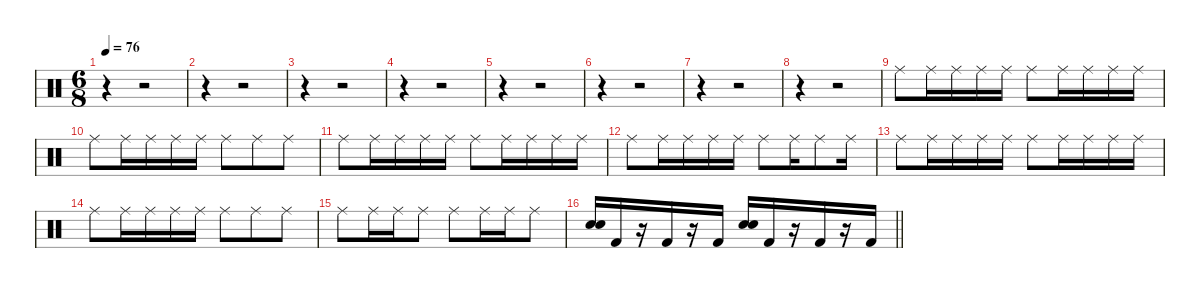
\defaultSystemsLayout 4
\hideDynamics
\bracketExtendMode nobrackets
\singleTrackTrackNamePolicy hidden
\multiTrackTrackNamePolicy hidden
\firstSystemTrackNameMode fullname
\firstSystemTrackNameOrientation horizontal
\otherSystemsTrackNameOrientation horizontal
\track ("Drums" "drm.") {instrument percussion}
\staff {score}
\articulation defaults
\ts (6 8)
\beaming (8 3 3)
\tempo 76
\clef neutral
\ks c
r.4{dy fff beam Down} r.2{beam Down} |
r.4{beam Down} r.2{beam Down} |
r.4{beam Down} r.2{beam Down} |
r.4{beam Down} r.2{beam Down} |
r.4{beam Down} r.2{beam Down} |
r.4{beam Down} r.2{beam Down} |
r.4{beam Down} r.2{beam Down} |
r.4{beam Down} r.2{beam Down} |
"Ride (middle)".8{beam Down} "Ride (middle)".16{dy f beam Down} "Ride (middle)".16{beam Down} "Ride (middle)".16{beam Down} "Ride (middle)".16{beam Down} "Ride (middle)".8{dy fff beam Down} "Ride (middle)".16{dy f beam Down} "Ride (middle)".16{beam Down} "Ride (middle)".16{beam Down} "Ride (middle)".16{beam Down} |
"Ride (middle)".8{dy fff beam Down} "Ride (middle)".16{dy f beam Down} "Ride (middle)".16{beam Down} "Ride (middle)".16{beam Down} "Ride (middle)".16{beam Down} "Ride (middle)".8{dy fff beam Down} "Ride (middle)".8{beam Down} "Ride (middle)".8{beam Down} |
"Ride (middle)".8{beam Down} "Ride (middle)".16{dy f beam Down} "Ride (middle)".16{beam Down} "Ride (middle)".16{beam Down} "Ride (middle)".16{beam Down} "Ride (middle)".8{dy fff beam Down} "Ride (middle)".16{dy f beam Down} "Ride (middle)".16{beam Down} "Ride (middle)".16{beam Down} "Ride (middle)".16{beam Down} |
"Ride (middle)".8{dy fff beam Down} "Ride (middle)".16{dy f beam Down} "Ride (middle)".16{beam Down} "Ride (middle)".16{beam Down} "Ride (middle)".16{beam Down} "Ride (middle)".8{dy fff beam Down} "Ride (middle)".16{dy f beam Down} "Ride (middle)".8{dy fff beam Down} "Ride (middle)".16{dy f beam Down} |
"Ride (middle)".8{dy fff beam Down} "Ride (middle)".16{dy f beam Down} "Ride (middle)".16{beam Down} "Ride (middle)".16{beam Down} "Ride (middle)".16{beam Down} "Ride (middle)".8{dy fff beam Down} "Ride (middle)".16{dy f beam Down} "Ride (middle)".16{beam Down} "Ride (middle)".16{beam Down} "Ride (middle)".16{beam Down} |
"Ride (middle)".8{dy fff beam Down} "Ride (middle)".16{dy f beam Down} "Ride (middle)".16{beam Down} "Ride (middle)".16{beam Down} "Ride (middle)".16{beam Down} "Ride (middle)".8{dy fff beam Down} "Ride (middle)".8{beam Down} "Ride (middle)".8{beam Down} |
"Ride (middle)".8{beam Down} "Ride (middle)".16{dy f beam Down} "Ride (middle)".16{beam Down} "Ride (middle)".8{beam Down} "Ride (middle)".8{dy fff beam Down} "Ride (middle)".16{dy f beam Down} "Ride (middle)".16{beam Down} "Ride (middle)".8{beam Down} |
\barLineRight lightlight
("Snare (hit) 2" "Snare (hit) 2").16{dy fff beam Up} "Kick (hit) 2".16{dy f beam Up} r.16{beam Up} "Kick (hit) 2".16{beam Up} r.16{beam Up} "Kick (hit) 2".16{beam Up} ("Snare (hit) 2" "Snare (hit) 2").16{dy fff beam Up} "Kick (hit) 2".16{dy f beam Up} r.16{beam Up} "Kick (hit) 2".16{beam Up} r.16{beam Up} "Kick (hit) 2".16{beam Up}
